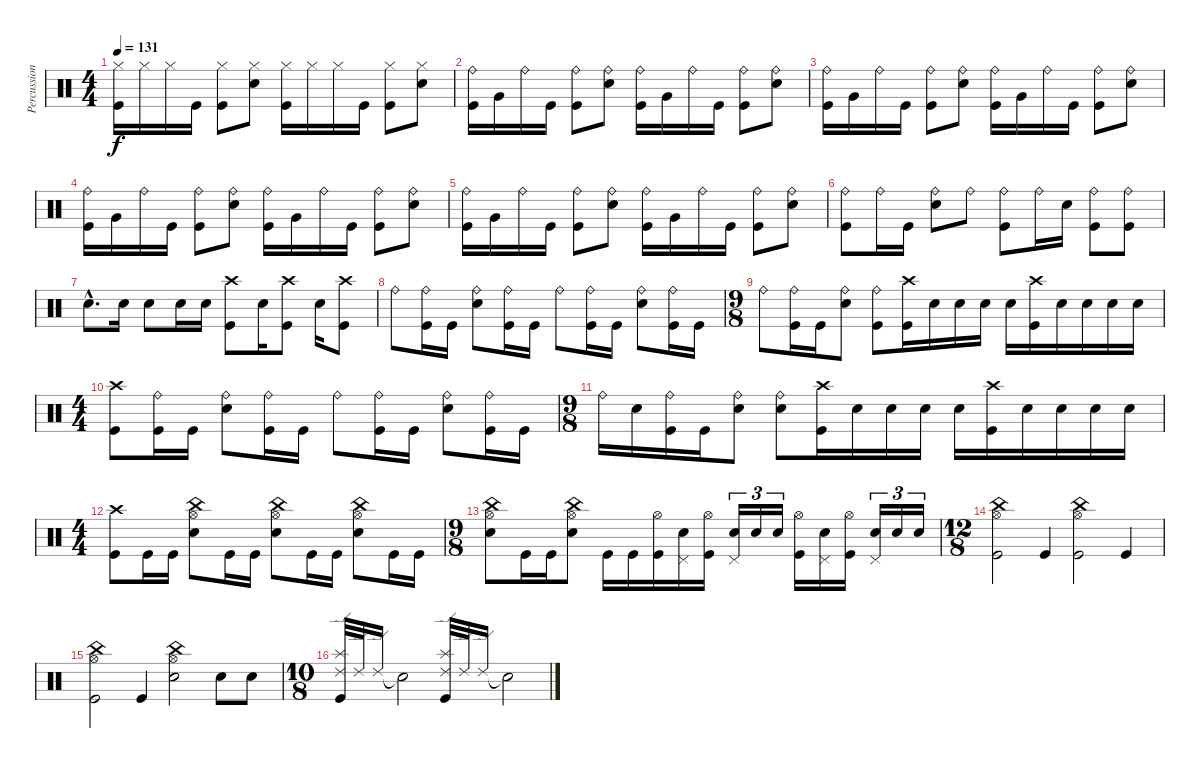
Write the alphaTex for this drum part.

\track ("Percussion" "Percussion") {instrument percussion}
\staff {score}
\articulation defaults
\ts (4 4)
\tempo 131
\clef neutral
\ks c
("Kick (hit)" "Hi-Hat (closed)").16{dy f} "Hi-Hat (closed)".16 "Hi-Hat (closed)".16 "Kick (hit)".16 ("Kick (hit)" "Hi-Hat (closed)").8 ("Electric Snare (hit)" "Hi-Hat (closed)").8 ("Kick (hit)" "Hi-Hat (closed)").16 "Hi-Hat (closed)".16 "Hi-Hat (closed)".16 "Kick (hit)".16 ("Kick (hit)" "Hi-Hat (closed)").8 ("Electric Snare (hit)" "Hi-Hat (closed)").8 |
("Ride (bell)" "Kick (hit)").16 "Very Low Tom (hit)".16 "Ride (bell)".16 "Kick (hit)".16 ("Ride (bell)" "Kick (hit)").8 ("Ride (bell)" "Electric Snare (hit)").8 ("Ride (bell)" "Kick (hit)").16 "Very Low Tom (hit)".16 "Ride (bell)".16 "Kick (hit)".16 ("Ride (bell)" "Kick (hit)").8 ("Ride (bell)" "Electric Snare (hit)").8 |
("Ride (bell)" "Kick (hit)").16 "Very Low Tom (hit)".16 "Ride (bell)".16 "Kick (hit)".16 ("Ride (bell)" "Kick (hit)").8 ("Ride (bell)" "Electric Snare (hit)").8 ("Ride (bell)" "Kick (hit)").16 "Very Low Tom (hit)".16 "Ride (bell)".16 "Kick (hit)".16 ("Ride (bell)" "Kick (hit)").8 ("Ride (bell)" "Electric Snare (hit)").8 |
("Ride (bell)" "Kick (hit)").16 "Very Low Tom (hit)".16 "Ride (bell)".16 "Kick (hit)".16 ("Ride (bell)" "Kick (hit)").8 ("Ride (bell)" "Electric Snare (hit)").8 ("Ride (bell)" "Kick (hit)").16 "Very Low Tom (hit)".16 "Ride (bell)".16 "Kick (hit)".16 ("Ride (bell)" "Kick (hit)").8 ("Ride (bell)" "Electric Snare (hit)").8 |
("Ride (bell)" "Kick (hit)").16 "Very Low Tom (hit)".16 "Ride (bell)".16 "Kick (hit)".16 ("Ride (bell)" "Kick (hit)").8 ("Ride (bell)" "Electric Snare (hit)").8 ("Ride (bell)" "Kick (hit)").16 "Very Low Tom (hit)".16 "Ride (bell)".16 "Kick (hit)".16 ("Ride (bell)" "Kick (hit)").8 ("Ride (bell)" "Electric Snare (hit)").8 |
("Ride (bell)" "Kick (hit)").8 "Ride (bell)".16 "Kick (hit)".16 ("Ride (bell)" "Electric Snare (hit)").8 "Ride (bell)".8 ("Ride (bell)" "Kick (hit)").8 "Ride (bell)".16 "Electric Snare (hit)".16 ("Ride (bell)" "Kick (hit)").8 ("Ride (bell)" "Kick (hit)").8 |
"Snare (hit) 2"{hac}.8{d} "Snare (hit) 2".16 "Snare (hit) 2".8 "Snare (hit) 2".16 "Snare (hit) 2".16 ("Kick (hit)" "Crash high (hit)").8 "Electric Snare (hit)".16 ("Kick (hit)" "Crash high (hit)").8 "Electric Snare (hit)".16 ("Kick (hit)" "Crash high (hit)").8 |
"Ride (bell)".8 ("Ride (bell)" "Kick (hit)").16 "Kick (hit)".16 ("Ride (bell)" "Snare (hit) 2").8 ("Ride (bell)" "Kick (hit)").16 "Kick (hit)".16 "Ride (bell)".8 ("Ride (bell)" "Kick (hit)").16 "Kick (hit)".16 ("Ride (bell)" "Snare (hit) 2").8 ("Ride (bell)" "Kick (hit)").16 "Kick (hit)".16 |
\ts (9 8)
"Ride (bell)".8 ("Ride (bell)" "Kick (hit)").16 "Kick (hit)".16 ("Snare (hit) 2" "Ride (bell)").8 ("Kick (hit)" "Ride (bell)").8 ("Kick (hit)" "Crash high (hit)").16 "Snare (hit) 2".16 "Snare (hit) 2".16 "Snare (hit) 2".16 "Snare (hit) 2".16 ("Kick (hit)" "Crash high (hit)").16 "Snare (hit) 2".16 "Snare (hit) 2".16 "Snare (hit) 2".16 "Snare (hit) 2".16 |
\ts (4 4)
("Kick (hit)" "Crash high (hit)").8 ("Ride (bell)" "Kick (hit)").16 "Kick (hit)".16 ("Ride (bell)" "Snare (hit) 2").8 ("Ride (bell)" "Kick (hit)").16 "Kick (hit)".16 "Ride (bell)".8 ("Ride (bell)" "Kick (hit)").16 "Kick (hit)".16 ("Ride (bell)" "Snare (hit) 2").8 ("Ride (bell)" "Kick (hit)").16 "Kick (hit)".16 |
\ts (9 8)
"Ride (bell)".16 "Snare (hit) 2".16 ("Ride (bell)" "Kick (hit)").16 "Kick (hit)".16 ("Snare (hit) 2" "Ride (bell)").8 ("Snare (hit) 2" "Ride (bell)").8 ("Kick (hit)" "Crash high (hit)").16 "Snare (hit) 2".16 "Snare (hit) 2".16 "Snare (hit) 2".16 "Snare (hit) 2".16 ("Kick (hit)" "Crash high (hit)").16 "Snare (hit) 2".16 "Snare (hit) 2".16 "Snare (hit) 2".16 "Snare (hit) 2".16 |
\ts (4 4)
("Crash high (hit)" "Kick (hit)").8 "Kick (hit)".16 "Kick (hit)".16 ("Hi-Hat (open)" "China (hit)" "Snare (hit) 2").8 "Kick (hit)".16 "Kick (hit)".16 ("Hi-Hat (open)" "China (hit)" "Snare (hit) 2").8 "Kick (hit)".16 "Kick (hit)".16 ("Hi-Hat (open)" "China (hit)" "Snare (hit) 2").8 "Kick (hit)".16 "Kick (hit)".16 |
\ts (9 8)
("Snare (hit) 2" "Hi-Hat (open)" "China (hit)").8 "Kick (hit)".16 "Kick (hit)".16 ("Snare (hit) 2" "Hi-Hat (open)" "China (hit)").8 "Kick (hit)".16 "Kick (hit)".16 ("Hi-Hat (open)" "Kick (hit)").16 ("Electric Snare (hit)" "Pedal Hi-Hat (hit)").16 ("Hi-Hat (open)" "Kick (hit)").16 ("Electric Snare (hit)" "Pedal Hi-Hat (hit)").16{tu (3 2)} "Electric Snare (hit)".16{tu (3 2)} "Electric Snare (hit)".16{tu (3 2)} ("Hi-Hat (open)" "Kick (hit)").16 ("Electric Snare (hit)" "Pedal Hi-Hat (hit)").16 ("Hi-Hat (open)" "Kick (hit)").16 ("Electric Snare (hit)" "Pedal Hi-Hat (hit)").16{tu (3 2)} "Electric Snare (hit)".16{tu (3 2)} "Electric Snare (hit)".16{tu (3 2)} |
\ts (12 8)
("Kick (hit)" "Hi-Hat (open)" "China (hit)").2 "Kick (hit)".4 ("Kick (hit)" "Hi-Hat (open)" "China (hit)").2 "Kick (hit)".4 |
("Kick (hit)" "Hi-Hat (open)" "China (hit)").2 "Kick (hit)".4 ("Snare (hit) 2" "Hi-Hat (open)" "China (hit)").2 "Snare (hit) 2".8 "Snare (hit) 2".8 |
\ts (10 8)
("Splash (hit)" "Ride (edge) 2" "Kick (hit)").32 "Ride (edge) 2".32 "Ride (edge) 2".16 "Snare (hit)"{t}.2 ("Splash (hit)" "Ride (edge) 2" "Kick (hit)").32 "Ride (edge) 2".32 "Ride (edge) 2".16 "Snare (hit)"{t}.2
